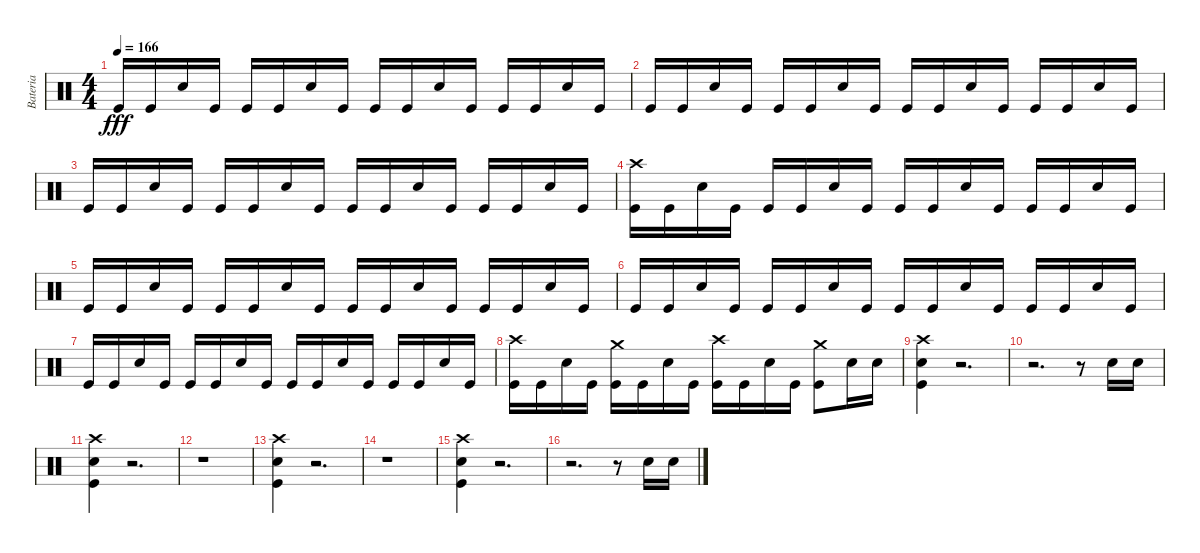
\track ("Bateria" "Bateria") {instrument percussion}
\staff {score}
\articulation defaults
\ts (4 4)
\tempo 166
\clef neutral
\ks c "Kick (hit)".16{dy fff} "Kick (hit)".16 "Snare (hit) 2".16 "Kick (hit)".16 "Kick (hit)".16 "Kick (hit)".16 "Snare (hit) 2".16 "Kick (hit)".16 "Kick (hit)".16 "Kick (hit)".16 "Snare (hit) 2".16 "Kick (hit)".16 "Kick (hit)".16 "Kick (hit)".16 "Snare (hit) 2".16 "Kick (hit)".16
|
"Kick (hit)".16 "Kick (hit)".16 "Snare (hit) 2".16 "Kick (hit)".16 "Kick (hit)".16 "Kick (hit)".16 "Snare (hit) 2".16 "Kick (hit)".16 "Kick (hit)".16 "Kick (hit)".16 "Snare (hit) 2".16 "Kick (hit)".16 "Kick (hit)".16 "Kick (hit)".16 "Snare (hit) 2".16 "Kick (hit)".16 |
"Kick (hit)".16 "Kick (hit)".16 "Snare (hit) 2".16 "Kick (hit)".16 "Kick (hit)".16 "Kick (hit)".16 "Snare (hit) 2".16 "Kick (hit)".16 "Kick (hit)".16 "Kick (hit)".16 "Snare (hit) 2".16 "Kick (hit)".16 "Kick (hit)".16 "Kick (hit)".16 "Snare (hit) 2".16 "Kick (hit)".16 |
("Kick (hit)" "Crash high (hit)").16 "Kick (hit)".16 "Snare (hit) 2".16 "Kick (hit)".16 "Kick (hit)".16 "Kick (hit)".16 "Snare (hit) 2".16 "Kick (hit)".16 "Kick (hit)".16 "Kick (hit)".16 "Snare (hit) 2".16 "Kick (hit)".16 "Kick (hit)".16 "Kick (hit)".16 "Snare (hit) 2".16 "Kick (hit)".16 |
"Kick (hit)".16 "Kick (hit)".16 "Snare (hit) 2".16 "Kick (hit)".16 "Kick (hit)".16 "Kick (hit)".16 "Snare (hit) 2".16 "Kick (hit)".16 "Kick (hit)".16 "Kick (hit)".16 "Snare (hit) 2".16 "Kick (hit)".16 "Kick (hit)".16 "Kick (hit)".16 "Snare (hit) 2".16 "Kick (hit)".16 |
"Kick (hit)".16 "Kick (hit)".16 "Snare (hit) 2".16 "Kick (hit)".16 "Kick (hit)".16 "Kick (hit)".16 "Snare (hit) 2".16 "Kick (hit)".16 "Kick (hit)".16 "Kick (hit)".16 "Snare (hit) 2".16 "Kick (hit)".16 "Kick (hit)".16 "Kick (hit)".16 "Snare (hit) 2".16 "Kick (hit)".16 |
"Kick (hit)".16 "Kick (hit)".16 "Snare (hit) 2".16 "Kick (hit)".16 "Kick (hit)".16 "Kick (hit)".16 "Snare (hit) 2".16 "Kick (hit)".16 "Kick (hit)".16 "Kick (hit)".16 "Snare (hit) 2".16 "Kick (hit)".16 "Kick (hit)".16 "Kick (hit)".16 "Snare (hit) 2".16 "Kick (hit)".16 |
("Kick (hit)" "Crash high (hit)").16 "Kick (hit)".16 "Snare (hit) 2".16 "Kick (hit)".16 ("Kick (hit)" "Crash medium (hit)").16 "Kick (hit)".16 "Snare (hit) 2".16 "Kick (hit)".16 ("Kick (hit)" "Crash high (hit)").16 "Kick (hit)".16 "Snare (hit) 2".16 "Kick (hit)".16 ("Kick (hit)" "Crash medium (hit)").8 "Snare (hit) 2".16 "Snare (hit) 2".16 |
("Crash high (hit)" "Snare (hit) 2" "Kick (hit)").4 r.2{d} |
r.2{d} r.8 "Snare (hit) 2".16 "Snare (hit) 2".16 |
("Kick (hit)" "Crash high (hit)" "Snare (hit) 2").4 r.2{d} |
r.1 |
("Kick (hit)" "Snare (hit) 2" "Crash high (hit)").4 r.2{d} |
r.1 |
("Kick (hit)" "Snare (hit) 2" "Crash high (hit)").4 r.2{d} |
r.2{d} r.8 "Snare (hit) 2".16 "Snare (hit) 2".16
